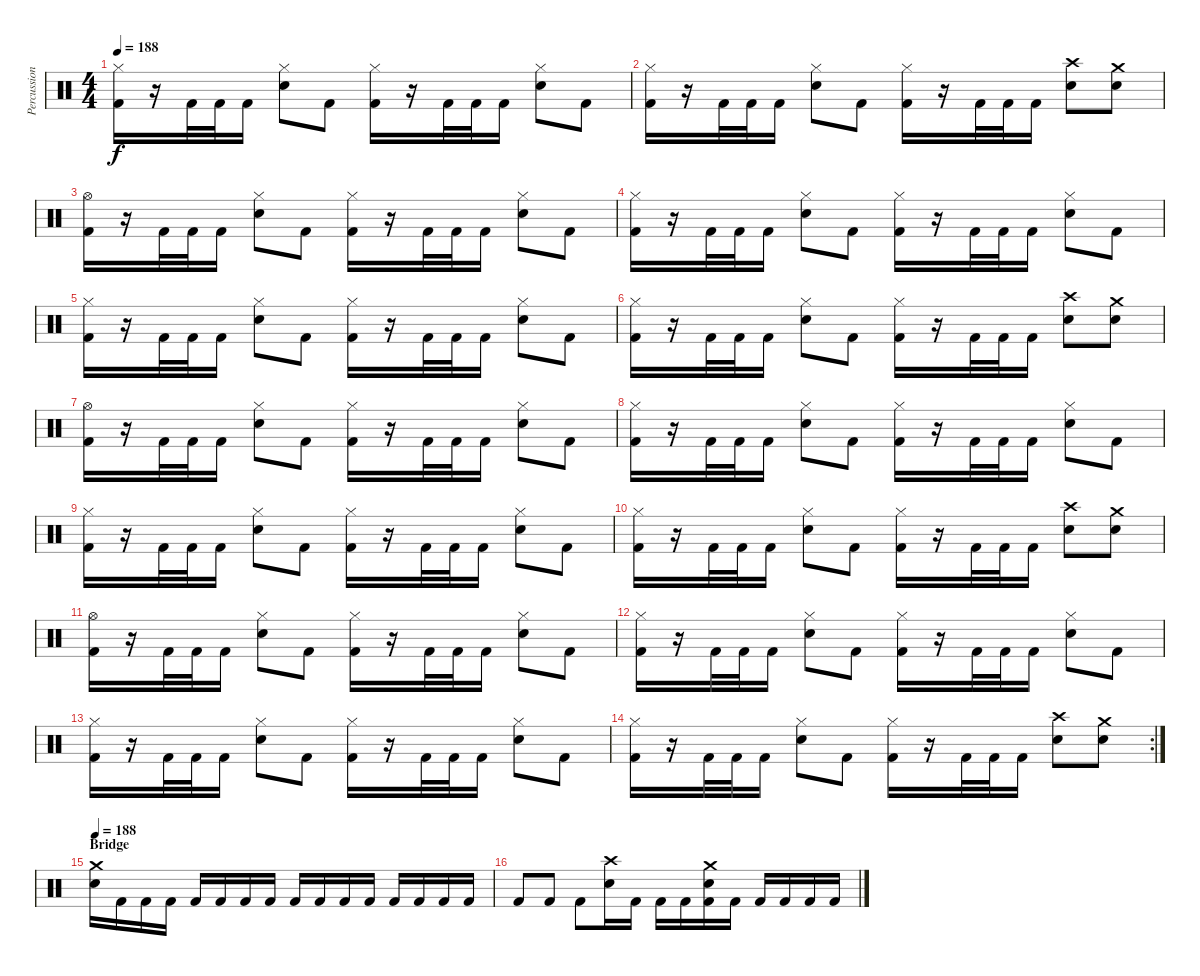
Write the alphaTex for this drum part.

\track ("Percussion" "Percussion") {instrument percussion}
\staff {score}
\articulation defaults
\ts (4 4)
\tempo 188
\clef neutral
\ks c
("Hi-Hat (closed)" "Kick (hit) 2").16{dy f} r.16 "Kick (hit) 2".32 "Kick (hit) 2".32 "Kick (hit) 2".16 ("Hi-Hat (closed)" "Electric Snare (hit)").8 "Kick (hit) 2".8 ("Hi-Hat (closed)" "Kick (hit) 2").16 r.16 "Kick (hit) 2".32 "Kick (hit) 2".32 "Kick (hit) 2".16 ("Hi-Hat (closed)" "Electric Snare (hit)").8 "Kick (hit) 2".8 |
("Hi-Hat (closed)" "Kick (hit) 2").16 r.16 "Kick (hit) 2".32 "Kick (hit) 2".32 "Kick (hit) 2".16 ("Hi-Hat (closed)" "Electric Snare (hit)").8 "Kick (hit) 2".8 ("Hi-Hat (closed)" "Kick (hit) 2").16 r.16 "Kick (hit) 2".32 "Kick (hit) 2".32 "Kick (hit) 2".16 ("Crash high (hit)" "Electric Snare (hit)").8 ("Crash medium (hit)" "Electric Snare (hit)").8 |
("Hi-Hat (open)" "Kick (hit) 2").16 r.16 "Kick (hit) 2".32 "Kick (hit) 2".32 "Kick (hit) 2".16 ("Hi-Hat (closed)" "Electric Snare (hit)").8 "Kick (hit) 2".8 ("Hi-Hat (closed)" "Kick (hit) 2").16 r.16 "Kick (hit) 2".32 "Kick (hit) 2".32 "Kick (hit) 2".16 ("Hi-Hat (closed)" "Electric Snare (hit)").8 "Kick (hit) 2".8 |
("Hi-Hat (closed)" "Kick (hit) 2").16 r.16 "Kick (hit) 2".32 "Kick (hit) 2".32 "Kick (hit) 2".16 ("Hi-Hat (closed)" "Electric Snare (hit)").8 "Kick (hit) 2".8 ("Hi-Hat (closed)" "Kick (hit) 2").16 r.16 "Kick (hit) 2".32 "Kick (hit) 2".32 "Kick (hit) 2".16 ("Hi-Hat (closed)" "Electric Snare (hit)").8 "Kick (hit) 2".8 |
("Hi-Hat (closed)" "Kick (hit) 2").16 r.16 "Kick (hit) 2".32 "Kick (hit) 2".32 "Kick (hit) 2".16 ("Hi-Hat (closed)" "Electric Snare (hit)").8 "Kick (hit) 2".8 ("Hi-Hat (closed)" "Kick (hit) 2").16 r.16 "Kick (hit) 2".32 "Kick (hit) 2".32 "Kick (hit) 2".16 ("Hi-Hat (closed)" "Electric Snare (hit)").8 "Kick (hit) 2".8 |
("Hi-Hat (closed)" "Kick (hit) 2").16 r.16 "Kick (hit) 2".32 "Kick (hit) 2".32 "Kick (hit) 2".16 ("Hi-Hat (closed)" "Electric Snare (hit)").8 "Kick (hit) 2".8 ("Hi-Hat (closed)" "Kick (hit) 2").16 r.16 "Kick (hit) 2".32 "Kick (hit) 2".32 "Kick (hit) 2".16 ("Crash high (hit)" "Electric Snare (hit)").8 ("Crash medium (hit)" "Electric Snare (hit)").8 |
("Hi-Hat (open)" "Kick (hit) 2").16 r.16 "Kick (hit) 2".32 "Kick (hit) 2".32 "Kick (hit) 2".16 ("Hi-Hat (closed)" "Electric Snare (hit)").8 "Kick (hit) 2".8 ("Hi-Hat (closed)" "Kick (hit) 2").16 r.16 "Kick (hit) 2".32 "Kick (hit) 2".32 "Kick (hit) 2".16 ("Hi-Hat (closed)" "Electric Snare (hit)").8 "Kick (hit) 2".8 |
("Hi-Hat (closed)" "Kick (hit) 2").16 r.16 "Kick (hit) 2".32 "Kick (hit) 2".32 "Kick (hit) 2".16 ("Hi-Hat (closed)" "Electric Snare (hit)").8 "Kick (hit) 2".8 ("Hi-Hat (closed)" "Kick (hit) 2").16 r.16 "Kick (hit) 2".32 "Kick (hit) 2".32 "Kick (hit) 2".16 ("Hi-Hat (closed)" "Electric Snare (hit)").8 "Kick (hit) 2".8 |
("Hi-Hat (closed)" "Kick (hit) 2").16 r.16 "Kick (hit) 2".32 "Kick (hit) 2".32 "Kick (hit) 2".16 ("Hi-Hat (closed)" "Electric Snare (hit)").8 "Kick (hit) 2".8 ("Hi-Hat (closed)" "Kick (hit) 2").16 r.16 "Kick (hit) 2".32 "Kick (hit) 2".32 "Kick (hit) 2".16 ("Hi-Hat (closed)" "Electric Snare (hit)").8 "Kick (hit) 2".8 |
("Hi-Hat (closed)" "Kick (hit) 2").16 r.16 "Kick (hit) 2".32 "Kick (hit) 2".32 "Kick (hit) 2".16 ("Hi-Hat (closed)" "Electric Snare (hit)").8 "Kick (hit) 2".8 ("Hi-Hat (closed)" "Kick (hit) 2").16 r.16 "Kick (hit) 2".32 "Kick (hit) 2".32 "Kick (hit) 2".16 ("Crash high (hit)" "Electric Snare (hit)").8 ("Crash medium (hit)" "Electric Snare (hit)").8 |
("Hi-Hat (open)" "Kick (hit) 2").16 r.16 "Kick (hit) 2".32 "Kick (hit) 2".32 "Kick (hit) 2".16 ("Hi-Hat (closed)" "Electric Snare (hit)").8 "Kick (hit) 2".8 ("Hi-Hat (closed)" "Kick (hit) 2").16 r.16 "Kick (hit) 2".32 "Kick (hit) 2".32 "Kick (hit) 2".16 ("Hi-Hat (closed)" "Electric Snare (hit)").8 "Kick (hit) 2".8 |
("Hi-Hat (closed)" "Kick (hit) 2").16 r.16 "Kick (hit) 2".32 "Kick (hit) 2".32 "Kick (hit) 2".16 ("Hi-Hat (closed)" "Electric Snare (hit)").8 "Kick (hit) 2".8 ("Hi-Hat (closed)" "Kick (hit) 2").16 r.16 "Kick (hit) 2".32 "Kick (hit) 2".32 "Kick (hit) 2".16 ("Hi-Hat (closed)" "Electric Snare (hit)").8 "Kick (hit) 2".8 |
("Hi-Hat (closed)" "Kick (hit) 2").16 r.16 "Kick (hit) 2".32 "Kick (hit) 2".32 "Kick (hit) 2".16 ("Hi-Hat (closed)" "Electric Snare (hit)").8 "Kick (hit) 2".8 ("Hi-Hat (closed)" "Kick (hit) 2").16 r.16 "Kick (hit) 2".32 "Kick (hit) 2".32 "Kick (hit) 2".16 ("Hi-Hat (closed)" "Electric Snare (hit)").8 "Kick (hit) 2".8 |
\rc 2
("Hi-Hat (closed)" "Kick (hit) 2").16 r.16 "Kick (hit) 2".32 "Kick (hit) 2".32 "Kick (hit) 2".16 ("Hi-Hat (closed)" "Electric Snare (hit)").8 "Kick (hit) 2".8 ("Hi-Hat (closed)" "Kick (hit) 2").16 r.16 "Kick (hit) 2".32 "Kick (hit) 2".32 "Kick (hit) 2".16 ("Crash high (hit)" "Electric Snare (hit)").8 ("Crash medium (hit)" "Electric Snare (hit)").8 |
\section ("" "Bridge")
\tempo 188
("Crash medium (hit)" "Electric Snare (hit)").16 "Kick (hit) 2".16 "Kick (hit) 2".16 "Kick (hit) 2".16 "Kick (hit) 2".16 "Kick (hit) 2".16 "Kick (hit) 2".16 "Kick (hit) 2".16 "Kick (hit) 2".16 "Kick (hit) 2".16 "Kick (hit) 2".16 "Kick (hit) 2".16 "Kick (hit) 2".16 "Kick (hit) 2".16 "Kick (hit) 2".16 "Kick (hit) 2".16 |
"Kick (hit) 2".8 "Kick (hit) 2".8 "Kick (hit) 2".8 ("Crash high (hit)" "Electric Snare (hit)").16 "Kick (hit) 2".16 "Kick (hit) 2".16 "Kick (hit) 2".16 ("Crash medium (hit)" "Electric Snare (hit)" "Kick (hit) 2").16 "Kick (hit) 2".16 "Kick (hit) 2".16 "Kick (hit) 2".16 "Kick (hit) 2".16 "Kick (hit) 2".16
